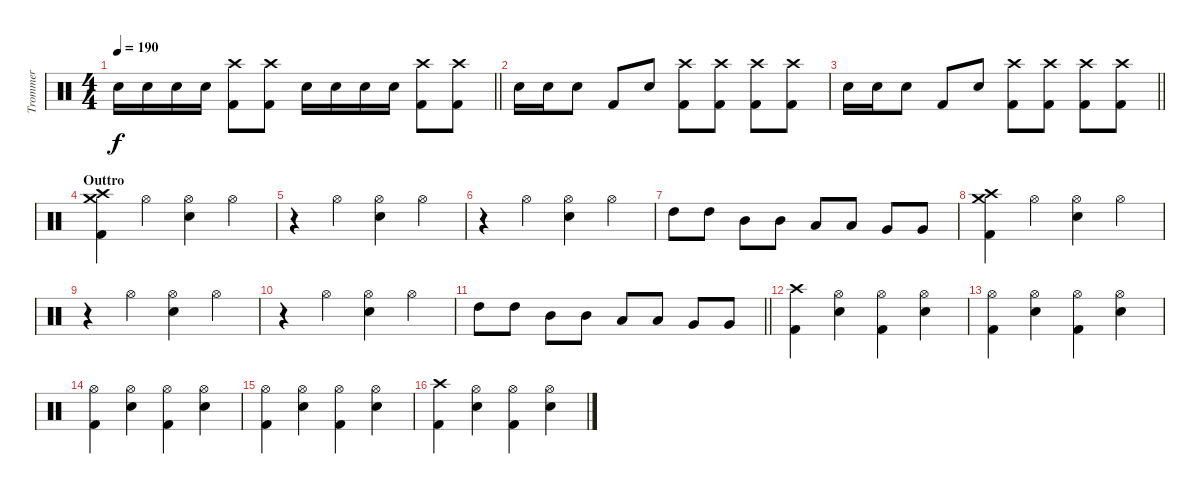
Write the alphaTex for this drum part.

\track ("Trommer" "Trommer") {instrument percussion}
\staff {score}
\articulation defaults
\ts (4 4)
\tempo 190
\clef neutral
\barLineRight lightlight
\ks c "Snare (hit) 2".16{dy f} "Snare (hit) 2".16 "Snare (hit) 2".16 "Snare (hit) 2".16
("Crash high (hit)" "Kick (hit) 2").8 ("Crash high (hit)" "Kick (hit) 2").8 "Snare (hit) 2".16 "Snare (hit) 2".16 "Snare (hit) 2".16 "Snare (hit) 2".16 ("Crash high (hit)" "Kick (hit) 2").8 ("Crash high (hit)" "Kick (hit) 2").8 |
"Snare (hit) 2".16 "Snare (hit) 2".16 "Snare (hit) 2".8 "Kick (hit) 2".8 "Snare (hit) 2".8 ("Crash high (hit)" "Kick (hit) 2").8 ("Crash high (hit)" "Kick (hit) 2").8 ("Crash high (hit)" "Kick (hit) 2").8 ("Crash high (hit)" "Kick (hit) 2").8 |
\barLineRight lightlight "Snare (hit) 2".16 "Snare (hit) 2".16 "Snare (hit) 2".8 "Kick (hit) 2".8 "Snare (hit) 2".8
("Crash high (hit)" "Kick (hit) 2").8 ("Crash high (hit)" "Kick (hit) 2").8 ("Crash high (hit)" "Kick (hit) 2").8 ("Crash high (hit)" "Kick (hit) 2").8 |
\section ("" "Outtro")
("Crash medium (hit)" "Crash high (hit)" "Kick (hit) 2").4 "Hi-Hat (open)".4 ("Hi-Hat (open)" "Snare (hit) 2").4 "Hi-Hat (open)".4 |
r.4 "Hi-Hat (open)".4 ("Hi-Hat (open)" "Snare (hit) 2").4 "Hi-Hat (open)".4 |
r.4 "Hi-Hat (open)".4 ("Hi-Hat (open)" "Snare (hit) 2").4 "Hi-Hat (open)".4 |
"High Tom (hit)".8 "High Tom (hit)".8 "Mid Tom (hit)".8 "Mid Tom (hit)".8 "Low Tom (hit)".8 "Low Tom (hit)".8 "Very Low Tom (hit)".8 "Very Low Tom (hit)".8 |
("Crash medium (hit)" "Crash high (hit)" "Kick (hit) 2").4 "Hi-Hat (open)".4 ("Hi-Hat (open)" "Snare (hit) 2").4 "Hi-Hat (open)".4 |
r.4 "Hi-Hat (open)".4 ("Hi-Hat (open)" "Snare (hit) 2").4 "Hi-Hat (open)".4 |
r.4 "Hi-Hat (open)".4 ("Hi-Hat (open)" "Snare (hit) 2").4 "Hi-Hat (open)".4 |
\barLineRight lightlight "High Tom (hit)".8 "High Tom (hit)".8 "Mid Tom (hit)".8 "Mid Tom (hit)".8 "Low Tom (hit)".8 "Low Tom (hit)".8 "Very Low Tom (hit)".8 "Very Low Tom (hit)".8
|
("Crash high (hit)" "Kick (hit) 2").4 ("Hi-Hat (open)" "Snare (hit) 2").4 ("Hi-Hat (open)" "Kick (hit) 2").4 ("Hi-Hat (open)" "Snare (hit) 2").4 |
("Hi-Hat (open)" "Kick (hit) 2").4 ("Hi-Hat (open)" "Snare (hit) 2").4 ("Hi-Hat (open)" "Kick (hit) 2").4 ("Hi-Hat (open)" "Snare (hit) 2").4 |
("Hi-Hat (open)" "Kick (hit) 2").4 ("Hi-Hat (open)" "Snare (hit) 2").4 ("Hi-Hat (open)" "Kick (hit) 2").4 ("Hi-Hat (open)" "Snare (hit) 2").4 |
("Hi-Hat (open)" "Kick (hit) 2").4 ("Hi-Hat (open)" "Snare (hit) 2").4 ("Hi-Hat (open)" "Kick (hit) 2").4 ("Hi-Hat (open)" "Snare (hit) 2").4 |
("Crash high (hit)" "Kick (hit) 2").4 ("Hi-Hat (open)" "Snare (hit) 2").4 ("Hi-Hat (open)" "Kick (hit) 2").4 ("Hi-Hat (open)" "Snare (hit) 2").4
